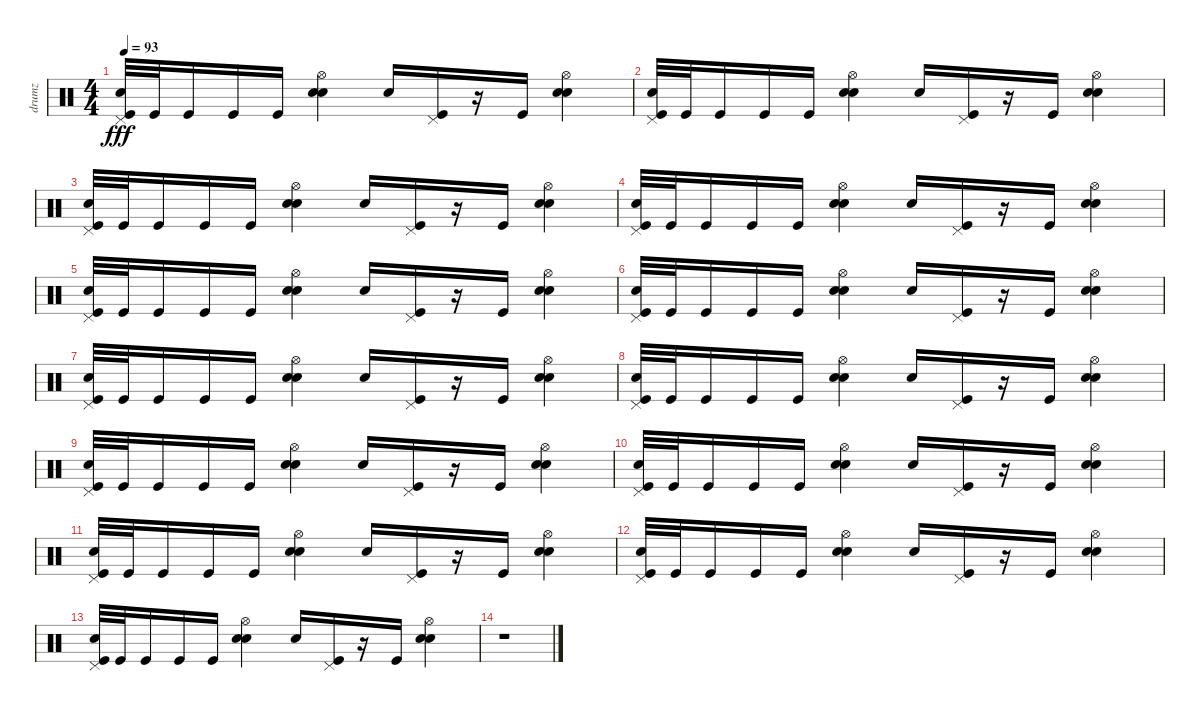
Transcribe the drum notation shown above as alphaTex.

\track ("drumz" "drumz") {instrument percussion}
\staff {score}
\articulation defaults
\ts (4 4)
\tempo 93
\clef neutral
\ks c
("Kick (hit)" "Pedal Hi-Hat (hit)" "Hand Clap (hit)").32{dy fff} "Kick (hit)".32 "Kick (hit)".16 "Kick (hit)".16 "Kick (hit)".16 ("Snare (hit) 2" "Hi-Hat (open)" "Hand Clap (hit)").4 "Hand Clap (hit)".16 ("Kick (hit)" "Pedal Hi-Hat (hit)").16 r.16 "Kick (hit)".16 ("Snare (hit) 2" "Hi-Hat (open)" "Hand Clap (hit)").4 |
("Kick (hit)" "Pedal Hi-Hat (hit)" "Hand Clap (hit)").32 "Kick (hit)".32 "Kick (hit)".16 "Kick (hit)".16 "Kick (hit)".16 ("Snare (hit) 2" "Hi-Hat (open)" "Hand Clap (hit)").4 "Hand Clap (hit)".16 ("Kick (hit)" "Pedal Hi-Hat (hit)").16 r.16 "Kick (hit)".16 ("Snare (hit) 2" "Hi-Hat (open)" "Hand Clap (hit)").4 |
("Kick (hit)" "Pedal Hi-Hat (hit)" "Hand Clap (hit)").32 "Kick (hit)".32 "Kick (hit)".16 "Kick (hit)".16 "Kick (hit)".16 ("Snare (hit) 2" "Hi-Hat (open)" "Hand Clap (hit)").4 "Hand Clap (hit)".16 ("Kick (hit)" "Pedal Hi-Hat (hit)").16 r.16 "Kick (hit)".16 ("Snare (hit) 2" "Hi-Hat (open)" "Hand Clap (hit)").4 |
("Kick (hit)" "Pedal Hi-Hat (hit)" "Hand Clap (hit)").32 "Kick (hit)".32 "Kick (hit)".16 "Kick (hit)".16 "Kick (hit)".16 ("Snare (hit) 2" "Hi-Hat (open)" "Hand Clap (hit)").4 "Hand Clap (hit)".16 ("Kick (hit)" "Pedal Hi-Hat (hit)").16 r.16 "Kick (hit)".16 ("Snare (hit) 2" "Hi-Hat (open)" "Hand Clap (hit)").4 |
("Kick (hit)" "Pedal Hi-Hat (hit)" "Hand Clap (hit)").32 "Kick (hit)".32 "Kick (hit)".16 "Kick (hit)".16 "Kick (hit)".16 ("Snare (hit) 2" "Hi-Hat (open)" "Hand Clap (hit)").4 "Hand Clap (hit)".16 ("Kick (hit)" "Pedal Hi-Hat (hit)").16 r.16 "Kick (hit)".16 ("Snare (hit) 2" "Hi-Hat (open)" "Hand Clap (hit)").4 |
("Kick (hit)" "Pedal Hi-Hat (hit)" "Hand Clap (hit)").32 "Kick (hit)".32 "Kick (hit)".16 "Kick (hit)".16 "Kick (hit)".16 ("Snare (hit) 2" "Hi-Hat (open)" "Hand Clap (hit)").4 "Hand Clap (hit)".16 ("Kick (hit)" "Pedal Hi-Hat (hit)").16 r.16 "Kick (hit)".16 ("Snare (hit) 2" "Hi-Hat (open)" "Hand Clap (hit)").4 |
("Kick (hit)" "Pedal Hi-Hat (hit)" "Hand Clap (hit)").32 "Kick (hit)".32 "Kick (hit)".16 "Kick (hit)".16 "Kick (hit)".16 ("Snare (hit) 2" "Hi-Hat (open)" "Hand Clap (hit)").4 "Hand Clap (hit)".16 ("Kick (hit)" "Pedal Hi-Hat (hit)").16 r.16 "Kick (hit)".16 ("Snare (hit) 2" "Hi-Hat (open)" "Hand Clap (hit)").4 |
("Kick (hit)" "Pedal Hi-Hat (hit)" "Hand Clap (hit)").32 "Kick (hit)".32 "Kick (hit)".16 "Kick (hit)".16 "Kick (hit)".16 ("Snare (hit) 2" "Hi-Hat (open)" "Hand Clap (hit)").4 "Hand Clap (hit)".16 ("Kick (hit)" "Pedal Hi-Hat (hit)").16 r.16 "Kick (hit)".16 ("Snare (hit) 2" "Hi-Hat (open)" "Hand Clap (hit)").4 |
("Kick (hit)" "Pedal Hi-Hat (hit)" "Hand Clap (hit)").32 "Kick (hit)".32 "Kick (hit)".16 "Kick (hit)".16 "Kick (hit)".16 ("Snare (hit) 2" "Hi-Hat (open)" "Hand Clap (hit)").4 "Hand Clap (hit)".16 ("Kick (hit)" "Pedal Hi-Hat (hit)").16 r.16 "Kick (hit)".16 ("Snare (hit) 2" "Hi-Hat (open)" "Hand Clap (hit)").4 |
("Kick (hit)" "Pedal Hi-Hat (hit)" "Hand Clap (hit)").32 "Kick (hit)".32 "Kick (hit)".16 "Kick (hit)".16 "Kick (hit)".16 ("Snare (hit) 2" "Hi-Hat (open)" "Hand Clap (hit)").4 "Hand Clap (hit)".16 ("Kick (hit)" "Pedal Hi-Hat (hit)").16 r.16 "Kick (hit)".16 ("Snare (hit) 2" "Hi-Hat (open)" "Hand Clap (hit)").4 |
("Kick (hit)" "Pedal Hi-Hat (hit)" "Hand Clap (hit)").32 "Kick (hit)".32 "Kick (hit)".16 "Kick (hit)".16 "Kick (hit)".16 ("Snare (hit) 2" "Hi-Hat (open)" "Hand Clap (hit)").4 "Hand Clap (hit)".16 ("Kick (hit)" "Pedal Hi-Hat (hit)").16 r.16 "Kick (hit)".16 ("Snare (hit) 2" "Hi-Hat (open)" "Hand Clap (hit)").4 |
("Kick (hit)" "Pedal Hi-Hat (hit)" "Hand Clap (hit)").32 "Kick (hit)".32 "Kick (hit)".16 "Kick (hit)".16 "Kick (hit)".16 ("Snare (hit) 2" "Hi-Hat (open)" "Hand Clap (hit)").4 "Hand Clap (hit)".16 ("Kick (hit)" "Pedal Hi-Hat (hit)").16 r.16 "Kick (hit)".16 ("Snare (hit) 2" "Hi-Hat (open)" "Hand Clap (hit)").4 |
("Kick (hit)" "Pedal Hi-Hat (hit)" "Hand Clap (hit)").32 "Kick (hit)".32 "Kick (hit)".16 "Kick (hit)".16 "Kick (hit)".16 ("Snare (hit) 2" "Hi-Hat (open)" "Hand Clap (hit)").4 "Hand Clap (hit)".16 ("Kick (hit)" "Pedal Hi-Hat (hit)").16 r.16 "Kick (hit)".16 ("Snare (hit) 2" "Hi-Hat (open)" "Hand Clap (hit)").4 |
r.1
